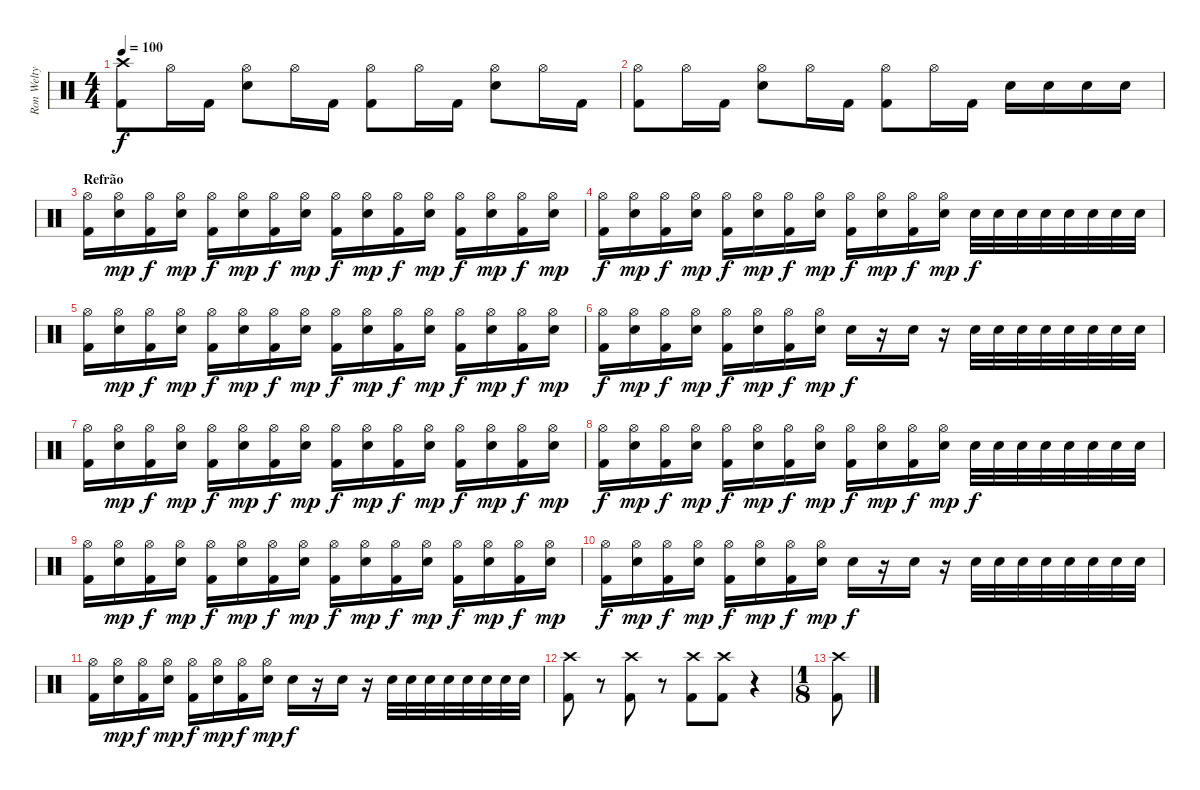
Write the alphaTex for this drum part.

\track ("Ron Welty" "Ron Welty") {instrument percussion}
\staff {score}
\articulation defaults
\ts (4 4)
\tempo 100
\clef neutral
\ks c
("Crash high (hit)" "Kick (hit) 2").8{dy f} "Hi-Hat (open)".16 "Kick (hit) 2".16 ("Hi-Hat (open)" "Snare (hit) 2").8 "Hi-Hat (open)".16 "Kick (hit) 2".16 ("Hi-Hat (open)" "Kick (hit) 2").8 "Hi-Hat (open)".16 "Kick (hit) 2".16 ("Hi-Hat (open)" "Snare (hit) 2").8 "Hi-Hat (open)".16 "Kick (hit) 2".16 |
("Hi-Hat (open)" "Kick (hit) 2").8 "Hi-Hat (open)".16 "Kick (hit) 2".16 ("Hi-Hat (open)" "Snare (hit) 2").8 "Hi-Hat (open)".16 "Kick (hit) 2".16 ("Hi-Hat (open)" "Kick (hit) 2").8 "Hi-Hat (open)".16 "Kick (hit) 2".16 "Snare (hit) 2".16 "Snare (hit) 2".16 "Snare (hit) 2".16 "Snare (hit) 2".16 |
\section ("" "Refrão")
("Hi-Hat (open)" "Kick (hit) 2").16 ("Hi-Hat (open)" "Snare (hit) 2").16{dy mp} ("Hi-Hat (open)" "Kick (hit) 2").16{dy f} ("Hi-Hat (open)" "Snare (hit) 2").16{dy mp} ("Hi-Hat (open)" "Kick (hit) 2").16{dy f} ("Hi-Hat (open)" "Snare (hit) 2").16{dy mp} ("Hi-Hat (open)" "Kick (hit) 2").16{dy f} ("Hi-Hat (open)" "Snare (hit) 2").16{dy mp} ("Hi-Hat (open)" "Kick (hit) 2").16{dy f} ("Hi-Hat (open)" "Snare (hit) 2").16{dy mp} ("Hi-Hat (open)" "Kick (hit) 2").16{dy f} ("Hi-Hat (open)" "Snare (hit) 2").16{dy mp} ("Hi-Hat (open)" "Kick (hit) 2").16{dy f} ("Hi-Hat (open)" "Snare (hit) 2").16{dy mp} ("Hi-Hat (open)" "Kick (hit) 2").16{dy f} ("Hi-Hat (open)" "Snare (hit) 2").16{dy mp} |
("Hi-Hat (open)" "Kick (hit) 2").16{dy f} ("Hi-Hat (open)" "Snare (hit) 2").16{dy mp} ("Hi-Hat (open)" "Kick (hit) 2").16{dy f} ("Hi-Hat (open)" "Snare (hit) 2").16{dy mp} ("Hi-Hat (open)" "Kick (hit) 2").16{dy f} ("Hi-Hat (open)" "Snare (hit) 2").16{dy mp} ("Hi-Hat (open)" "Kick (hit) 2").16{dy f} ("Hi-Hat (open)" "Snare (hit) 2").16{dy mp} ("Hi-Hat (open)" "Kick (hit) 2").16{dy f} ("Hi-Hat (open)" "Snare (hit) 2").16{dy mp} ("Hi-Hat (open)" "Kick (hit) 2").16{dy f} ("Hi-Hat (open)" "Snare (hit) 2").16{dy mp} "Snare (hit) 2".32{dy f} "Snare (hit) 2".32 "Snare (hit) 2".32 "Snare (hit) 2".32 "Snare (hit) 2".32 "Snare (hit) 2".32 "Snare (hit) 2".32 "Snare (hit) 2".32 |
("Hi-Hat (open)" "Kick (hit) 2").16 ("Hi-Hat (open)" "Snare (hit) 2").16{dy mp} ("Hi-Hat (open)" "Kick (hit) 2").16{dy f} ("Hi-Hat (open)" "Snare (hit) 2").16{dy mp} ("Hi-Hat (open)" "Kick (hit) 2").16{dy f} ("Hi-Hat (open)" "Snare (hit) 2").16{dy mp} ("Hi-Hat (open)" "Kick (hit) 2").16{dy f} ("Hi-Hat (open)" "Snare (hit) 2").16{dy mp} ("Hi-Hat (open)" "Kick (hit) 2").16{dy f} ("Hi-Hat (open)" "Snare (hit) 2").16{dy mp} ("Hi-Hat (open)" "Kick (hit) 2").16{dy f} ("Hi-Hat (open)" "Snare (hit) 2").16{dy mp} ("Hi-Hat (open)" "Kick (hit) 2").16{dy f} ("Hi-Hat (open)" "Snare (hit) 2").16{dy mp} ("Hi-Hat (open)" "Kick (hit) 2").16{dy f} ("Hi-Hat (open)" "Snare (hit) 2").16{dy mp} |
("Hi-Hat (open)" "Kick (hit) 2").16{dy f} ("Hi-Hat (open)" "Snare (hit) 2").16{dy mp} ("Hi-Hat (open)" "Kick (hit) 2").16{dy f} ("Hi-Hat (open)" "Snare (hit) 2").16{dy mp} ("Hi-Hat (open)" "Kick (hit) 2").16{dy f} ("Hi-Hat (open)" "Snare (hit) 2").16{dy mp} ("Hi-Hat (open)" "Kick (hit) 2").16{dy f} ("Hi-Hat (open)" "Snare (hit) 2").16{dy mp} "Snare (hit) 2".16{dy f} r.16 "Snare (hit) 2".16 r.16 "Snare (hit) 2".32 "Snare (hit) 2".32 "Snare (hit) 2".32 "Snare (hit) 2".32 "Snare (hit) 2".32 "Snare (hit) 2".32 "Snare (hit) 2".32 "Snare (hit) 2".32 |
("Hi-Hat (open)" "Kick (hit) 2").16 ("Hi-Hat (open)" "Snare (hit) 2").16{dy mp} ("Hi-Hat (open)" "Kick (hit) 2").16{dy f} ("Hi-Hat (open)" "Snare (hit) 2").16{dy mp} ("Hi-Hat (open)" "Kick (hit) 2").16{dy f} ("Hi-Hat (open)" "Snare (hit) 2").16{dy mp} ("Hi-Hat (open)" "Kick (hit) 2").16{dy f} ("Hi-Hat (open)" "Snare (hit) 2").16{dy mp} ("Hi-Hat (open)" "Kick (hit) 2").16{dy f} ("Hi-Hat (open)" "Snare (hit) 2").16{dy mp} ("Hi-Hat (open)" "Kick (hit) 2").16{dy f} ("Hi-Hat (open)" "Snare (hit) 2").16{dy mp} ("Hi-Hat (open)" "Kick (hit) 2").16{dy f} ("Hi-Hat (open)" "Snare (hit) 2").16{dy mp} ("Hi-Hat (open)" "Kick (hit) 2").16{dy f} ("Hi-Hat (open)" "Snare (hit) 2").16{dy mp} |
("Hi-Hat (open)" "Kick (hit) 2").16{dy f} ("Hi-Hat (open)" "Snare (hit) 2").16{dy mp} ("Hi-Hat (open)" "Kick (hit) 2").16{dy f} ("Hi-Hat (open)" "Snare (hit) 2").16{dy mp} ("Hi-Hat (open)" "Kick (hit) 2").16{dy f} ("Hi-Hat (open)" "Snare (hit) 2").16{dy mp} ("Hi-Hat (open)" "Kick (hit) 2").16{dy f} ("Hi-Hat (open)" "Snare (hit) 2").16{dy mp} ("Hi-Hat (open)" "Kick (hit) 2").16{dy f} ("Hi-Hat (open)" "Snare (hit) 2").16{dy mp} ("Hi-Hat (open)" "Kick (hit) 2").16{dy f} ("Hi-Hat (open)" "Snare (hit) 2").16{dy mp} "Snare (hit) 2".32{dy f} "Snare (hit) 2".32 "Snare (hit) 2".32 "Snare (hit) 2".32 "Snare (hit) 2".32 "Snare (hit) 2".32 "Snare (hit) 2".32 "Snare (hit) 2".32 |
("Hi-Hat (open)" "Kick (hit) 2").16 ("Hi-Hat (open)" "Snare (hit) 2").16{dy mp} ("Hi-Hat (open)" "Kick (hit) 2").16{dy f} ("Hi-Hat (open)" "Snare (hit) 2").16{dy mp} ("Hi-Hat (open)" "Kick (hit) 2").16{dy f} ("Hi-Hat (open)" "Snare (hit) 2").16{dy mp} ("Hi-Hat (open)" "Kick (hit) 2").16{dy f} ("Hi-Hat (open)" "Snare (hit) 2").16{dy mp} ("Hi-Hat (open)" "Kick (hit) 2").16{dy f} ("Hi-Hat (open)" "Snare (hit) 2").16{dy mp} ("Hi-Hat (open)" "Kick (hit) 2").16{dy f} ("Hi-Hat (open)" "Snare (hit) 2").16{dy mp} ("Hi-Hat (open)" "Kick (hit) 2").16{dy f} ("Hi-Hat (open)" "Snare (hit) 2").16{dy mp} ("Hi-Hat (open)" "Kick (hit) 2").16{dy f} ("Hi-Hat (open)" "Snare (hit) 2").16{dy mp} |
("Hi-Hat (open)" "Kick (hit) 2").16{dy f} ("Hi-Hat (open)" "Snare (hit) 2").16{dy mp} ("Hi-Hat (open)" "Kick (hit) 2").16{dy f} ("Hi-Hat (open)" "Snare (hit) 2").16{dy mp} ("Hi-Hat (open)" "Kick (hit) 2").16{dy f} ("Hi-Hat (open)" "Snare (hit) 2").16{dy mp} ("Hi-Hat (open)" "Kick (hit) 2").16{dy f} ("Hi-Hat (open)" "Snare (hit) 2").16{dy mp} "Snare (hit) 2".16{dy f} r.16 "Snare (hit) 2".16 r.16 "Snare (hit) 2".32 "Snare (hit) 2".32 "Snare (hit) 2".32 "Snare (hit) 2".32 "Snare (hit) 2".32 "Snare (hit) 2".32 "Snare (hit) 2".32 "Snare (hit) 2".32 |
("Hi-Hat (open)" "Kick (hit) 2").16 ("Hi-Hat (open)" "Snare (hit) 2").16{dy mp} ("Hi-Hat (open)" "Kick (hit) 2").16{dy f} ("Hi-Hat (open)" "Snare (hit) 2").16{dy mp} ("Hi-Hat (open)" "Kick (hit) 2").16{dy f} ("Hi-Hat (open)" "Snare (hit) 2").16{dy mp} ("Hi-Hat (open)" "Kick (hit) 2").16{dy f} ("Hi-Hat (open)" "Snare (hit) 2").16{dy mp} "Snare (hit) 2".16{dy f} r.16 "Snare (hit) 2".16 r.16 "Snare (hit) 2".32 "Snare (hit) 2".32 "Snare (hit) 2".32 "Snare (hit) 2".32 "Snare (hit) 2".32 "Snare (hit) 2".32 "Snare (hit) 2".32 "Snare (hit) 2".32 |
("Crash high (hit)" "Kick (hit) 2").8 r.8 ("Crash high (hit)" "Kick (hit) 2").8 r.8 ("Crash high (hit)" "Kick (hit) 2").8 ("Crash high (hit)" "Kick (hit) 2").8 r.4 |
\ts (1 8)
("Crash high (hit)" "Kick (hit) 2").8
